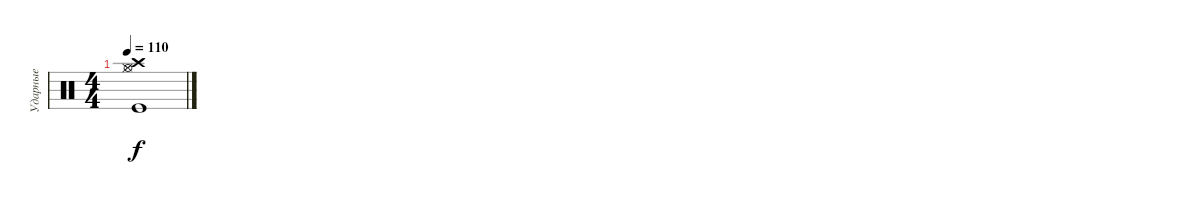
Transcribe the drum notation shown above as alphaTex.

\track ("Ударные" "Ударные") {instrument percussion}
\staff {score}
\articulation defaults
\ts (4 4)
\tempo 110
\clef neutral
\ks c
("Hi-Hat (open)" "Hi-Hat (closed)" "Crash high (hit)" "Kick (hit)").1{dy f}
